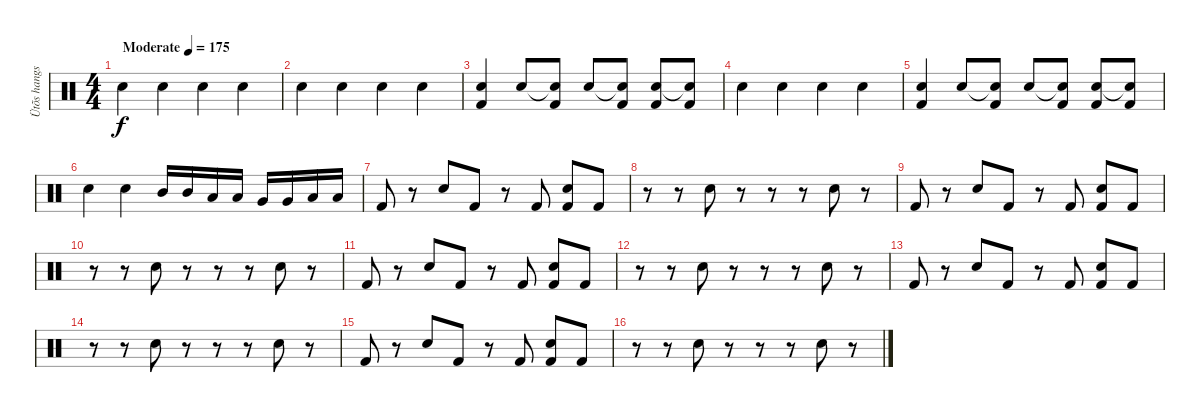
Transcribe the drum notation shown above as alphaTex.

\track ("Ütõs hangszer" "Ütõs hangs") {instrument percussion}
\staff {score}
\articulation defaults
\ts (4 4)
\tempo (175 "Moderate")
\clef neutral
\ks c "Hand Clap (hit)".4{dy f} "Hand Clap (hit)".4 "Hand Clap (hit)".4 "Hand Clap (hit)".4
|
"Hand Clap (hit)".4 "Hand Clap (hit)".4 "Hand Clap (hit)".4 "Hand Clap (hit)".4 |
("Hand Clap (hit)" "Kick (hit) 2").4 "Hand Clap (hit)".8 ("Snare (hit)"{t} "Kick (hit) 2").8 "Hand Clap (hit)".8 ("Snare (hit)"{t} "Kick (hit) 2").8 ("Hand Clap (hit)" "Kick (hit) 2").8 ("Snare (hit)"{t} "Kick (hit) 2").8 |
"Hand Clap (hit)".4 "Hand Clap (hit)".4 "Hand Clap (hit)".4 "Hand Clap (hit)".4 |
("Hand Clap (hit)" "Kick (hit) 2").4 "Hand Clap (hit)".8 ("Snare (hit)"{t} "Kick (hit) 2").8 "Hand Clap (hit)".8 ("Snare (hit)"{t} "Kick (hit) 2").8 ("Hand Clap (hit)" "Kick (hit) 2").8 ("Snare (hit)"{t} "Kick (hit) 2").8 |
"Hand Clap (hit)".4 "Hand Clap (hit)".4 "Mid Tom (hit)".16 "Mid Tom (hit)".16 "Low Tom (hit)".16 "Low Tom (hit)".16 "Very Low Tom (hit)".16 "Very Low Tom (hit)".16 "Low Floor Tom (hit)".16 "Low Floor Tom (hit)".16 |
"Kick (hit) 2".8 r.8 "Snare (hit) 2".8 "Kick (hit) 2".8 r.8 "Kick (hit) 2".8 ("Snare (hit) 2" "Kick (hit) 2").8 "Kick (hit) 2".8 |
r.8 r.8 "Snare (hit) 2".8 r.8 r.8 r.8 "Snare (hit) 2".8 r.8 |
"Kick (hit) 2".8 r.8 "Snare (hit) 2".8 "Kick (hit) 2".8 r.8 "Kick (hit) 2".8 ("Snare (hit) 2" "Kick (hit) 2").8 "Kick (hit) 2".8 |
r.8 r.8 "Snare (hit) 2".8 r.8 r.8 r.8 "Snare (hit) 2".8 r.8 |
"Kick (hit) 2".8 r.8 "Snare (hit) 2".8 "Kick (hit) 2".8 r.8 "Kick (hit) 2".8 ("Snare (hit) 2" "Kick (hit) 2").8 "Kick (hit) 2".8 |
r.8 r.8 "Snare (hit) 2".8 r.8 r.8 r.8 "Snare (hit) 2".8 r.8 |
"Kick (hit) 2".8 r.8 "Snare (hit) 2".8 "Kick (hit) 2".8 r.8 "Kick (hit) 2".8 ("Snare (hit) 2" "Kick (hit) 2").8 "Kick (hit) 2".8 |
r.8 r.8 "Snare (hit) 2".8 r.8 r.8 r.8 "Snare (hit) 2".8 r.8 |
"Kick (hit) 2".8 r.8 "Snare (hit) 2".8 "Kick (hit) 2".8 r.8 "Kick (hit) 2".8 ("Snare (hit) 2" "Kick (hit) 2").8 "Kick (hit) 2".8 |
r.8 r.8 "Snare (hit) 2".8 r.8 r.8 r.8 "Snare (hit) 2".8 r.8
